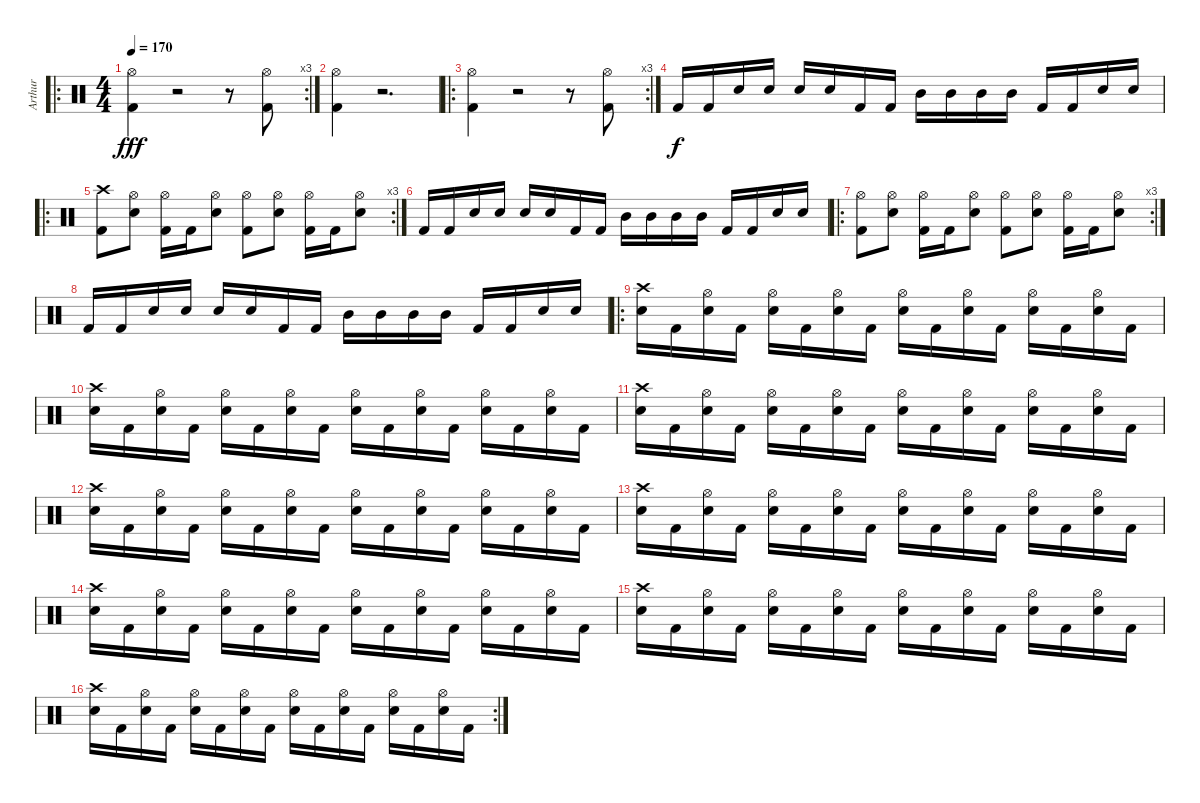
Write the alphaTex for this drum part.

\track ("Arthur" "Arthur") {instrument percussion}
\staff {score}
\articulation defaults
\ro
\rc 3
\ts (4 4)
\tempo 170
\clef neutral
\ks c
("Hi-Hat (open)" "Kick (hit) 2").4{dy fff} r.2 r.8 ("Hi-Hat (open)" "Kick (hit) 2").8 |
("Hi-Hat (open)" "Kick (hit) 2").4 r.2{d} |
\ro
\rc 3
("Hi-Hat (open)" "Kick (hit) 2").4 r.2 r.8 ("Hi-Hat (open)" "Kick (hit) 2").8 |
"Kick (hit) 2".16{dy f} "Kick (hit) 2".16 "Electric Snare (hit)".16 "Electric Snare (hit)".16 "Electric Snare (hit)".16 "Electric Snare (hit)".16 "Kick (hit) 2".16 "Kick (hit) 2".16 "Mid Tom (hit)".16 "Mid Tom (hit)".16 "Mid Tom (hit)".16 "Mid Tom (hit)".16 "Kick (hit) 2".16 "Kick (hit) 2".16 "Electric Snare (hit)".16 "Electric Snare (hit)".16 |
\ro
\rc 3
("Crash high (hit)" "Kick (hit) 2").8 ("Hi-Hat (open)" "Electric Snare (hit)").8 ("Hi-Hat (open)" "Kick (hit) 2").16 "Kick (hit) 2".16 ("Hi-Hat (open)" "Electric Snare (hit)").8 ("Hi-Hat (open)" "Kick (hit) 2").8 ("Hi-Hat (open)" "Electric Snare (hit)").8 ("Hi-Hat (open)" "Kick (hit) 2").16 "Kick (hit) 2".16 ("Hi-Hat (open)" "Electric Snare (hit)").8 |
"Kick (hit) 2".16 "Kick (hit) 2".16 "Electric Snare (hit)".16 "Electric Snare (hit)".16 "Electric Snare (hit)".16 "Electric Snare (hit)".16 "Kick (hit) 2".16 "Kick (hit) 2".16 "Mid Tom (hit)".16 "Mid Tom (hit)".16 "Mid Tom (hit)".16 "Mid Tom (hit)".16 "Kick (hit) 2".16 "Kick (hit) 2".16 "Electric Snare (hit)".16 "Electric Snare (hit)".16 |
\ro
\rc 3
("Hi-Hat (open)" "Kick (hit) 2").8 ("Hi-Hat (open)" "Electric Snare (hit)").8 ("Hi-Hat (open)" "Kick (hit) 2").16 "Kick (hit) 2".16 ("Hi-Hat (open)" "Electric Snare (hit)").8 ("Hi-Hat (open)" "Kick (hit) 2").8 ("Hi-Hat (open)" "Electric Snare (hit)").8 ("Hi-Hat (open)" "Kick (hit) 2").16 "Kick (hit) 2".16 ("Hi-Hat (open)" "Electric Snare (hit)").8 |
"Kick (hit) 2".16 "Kick (hit) 2".16 "Electric Snare (hit)".16 "Electric Snare (hit)".16 "Electric Snare (hit)".16 "Electric Snare (hit)".16 "Kick (hit) 2".16 "Kick (hit) 2".16 "Mid Tom (hit)".16 "Mid Tom (hit)".16 "Mid Tom (hit)".16 "Mid Tom (hit)".16 "Kick (hit) 2".16 "Kick (hit) 2".16 "Electric Snare (hit)".16 "Electric Snare (hit)".16 |
\ro
("Crash high (hit)" "Electric Snare (hit)").16 "Kick (hit) 2".16 ("Hi-Hat (open)" "Electric Snare (hit)").16 "Kick (hit) 2".16 ("Hi-Hat (open)" "Electric Snare (hit)").16 "Kick (hit) 2".16 ("Hi-Hat (open)" "Electric Snare (hit)").16 "Kick (hit) 2".16 ("Hi-Hat (open)" "Electric Snare (hit)").16 "Kick (hit) 2".16 ("Hi-Hat (open)" "Electric Snare (hit)").16 "Kick (hit) 2".16 ("Hi-Hat (open)" "Electric Snare (hit)").16 "Kick (hit) 2".16 ("Hi-Hat (open)" "Electric Snare (hit)").16 "Kick (hit) 2".16 |
("Crash high (hit)" "Electric Snare (hit)").16 "Kick (hit) 2".16 ("Hi-Hat (open)" "Electric Snare (hit)").16 "Kick (hit) 2".16 ("Hi-Hat (open)" "Electric Snare (hit)").16 "Kick (hit) 2".16 ("Hi-Hat (open)" "Electric Snare (hit)").16 "Kick (hit) 2".16 ("Hi-Hat (open)" "Electric Snare (hit)").16 "Kick (hit) 2".16 ("Hi-Hat (open)" "Electric Snare (hit)").16 "Kick (hit) 2".16 ("Hi-Hat (open)" "Electric Snare (hit)").16 "Kick (hit) 2".16 ("Hi-Hat (open)" "Electric Snare (hit)").16 "Kick (hit) 2".16 |
("Crash high (hit)" "Electric Snare (hit)").16 "Kick (hit) 2".16 ("Hi-Hat (open)" "Electric Snare (hit)").16 "Kick (hit) 2".16 ("Hi-Hat (open)" "Electric Snare (hit)").16 "Kick (hit) 2".16 ("Hi-Hat (open)" "Electric Snare (hit)").16 "Kick (hit) 2".16 ("Hi-Hat (open)" "Electric Snare (hit)").16 "Kick (hit) 2".16 ("Hi-Hat (open)" "Electric Snare (hit)").16 "Kick (hit) 2".16 ("Hi-Hat (open)" "Electric Snare (hit)").16 "Kick (hit) 2".16 ("Hi-Hat (open)" "Electric Snare (hit)").16 "Kick (hit) 2".16 |
("Crash high (hit)" "Electric Snare (hit)").16 "Kick (hit) 2".16 ("Hi-Hat (open)" "Electric Snare (hit)").16 "Kick (hit) 2".16 ("Hi-Hat (open)" "Electric Snare (hit)").16 "Kick (hit) 2".16 ("Hi-Hat (open)" "Electric Snare (hit)").16 "Kick (hit) 2".16 ("Hi-Hat (open)" "Electric Snare (hit)").16 "Kick (hit) 2".16 ("Hi-Hat (open)" "Electric Snare (hit)").16 "Kick (hit) 2".16 ("Hi-Hat (open)" "Electric Snare (hit)").16 "Kick (hit) 2".16 ("Hi-Hat (open)" "Electric Snare (hit)").16 "Kick (hit) 2".16 |
("Crash high (hit)" "Electric Snare (hit)").16 "Kick (hit) 2".16 ("Hi-Hat (open)" "Electric Snare (hit)").16 "Kick (hit) 2".16 ("Hi-Hat (open)" "Electric Snare (hit)").16 "Kick (hit) 2".16 ("Hi-Hat (open)" "Electric Snare (hit)").16 "Kick (hit) 2".16 ("Hi-Hat (open)" "Electric Snare (hit)").16 "Kick (hit) 2".16 ("Hi-Hat (open)" "Electric Snare (hit)").16 "Kick (hit) 2".16 ("Hi-Hat (open)" "Electric Snare (hit)").16 "Kick (hit) 2".16 ("Hi-Hat (open)" "Electric Snare (hit)").16 "Kick (hit) 2".16 |
("Crash high (hit)" "Electric Snare (hit)").16 "Kick (hit) 2".16 ("Hi-Hat (open)" "Electric Snare (hit)").16 "Kick (hit) 2".16 ("Hi-Hat (open)" "Electric Snare (hit)").16 "Kick (hit) 2".16 ("Hi-Hat (open)" "Electric Snare (hit)").16 "Kick (hit) 2".16 ("Hi-Hat (open)" "Electric Snare (hit)").16 "Kick (hit) 2".16 ("Hi-Hat (open)" "Electric Snare (hit)").16 "Kick (hit) 2".16 ("Hi-Hat (open)" "Electric Snare (hit)").16 "Kick (hit) 2".16 ("Hi-Hat (open)" "Electric Snare (hit)").16 "Kick (hit) 2".16 |
("Crash high (hit)" "Electric Snare (hit)").16 "Kick (hit) 2".16 ("Hi-Hat (open)" "Electric Snare (hit)").16 "Kick (hit) 2".16 ("Hi-Hat (open)" "Electric Snare (hit)").16 "Kick (hit) 2".16 ("Hi-Hat (open)" "Electric Snare (hit)").16 "Kick (hit) 2".16 ("Hi-Hat (open)" "Electric Snare (hit)").16 "Kick (hit) 2".16 ("Hi-Hat (open)" "Electric Snare (hit)").16 "Kick (hit) 2".16 ("Hi-Hat (open)" "Electric Snare (hit)").16 "Kick (hit) 2".16 ("Hi-Hat (open)" "Electric Snare (hit)").16 "Kick (hit) 2".16 |
\rc 2
("Crash high (hit)" "Electric Snare (hit)").16 "Kick (hit) 2".16 ("Hi-Hat (open)" "Electric Snare (hit)").16 "Kick (hit) 2".16 ("Hi-Hat (open)" "Electric Snare (hit)").16 "Kick (hit) 2".16 ("Hi-Hat (open)" "Electric Snare (hit)").16 "Kick (hit) 2".16 ("Hi-Hat (open)" "Electric Snare (hit)").16 "Kick (hit) 2".16 ("Hi-Hat (open)" "Electric Snare (hit)").16 "Kick (hit) 2".16 ("Hi-Hat (open)" "Electric Snare (hit)").16 "Kick (hit) 2".16 ("Hi-Hat (open)" "Electric Snare (hit)").16 "Kick (hit) 2".16
